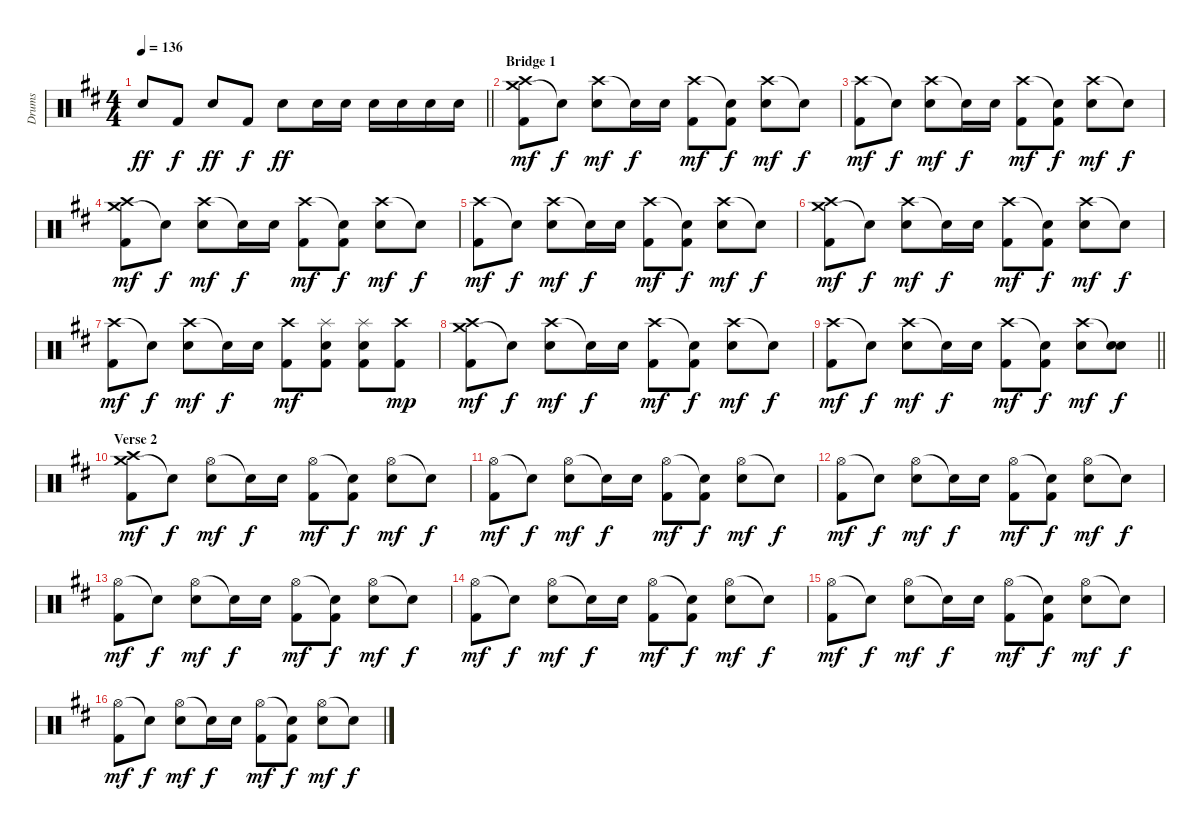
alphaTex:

\track ("Drums" "Drums") {instrument percussion}
\staff {score}
\articulation defaults
\ts (4 4)
\tempo 136
\clef neutral
\barLineRight lightlight
\ks d "Electric Snare (hit)".8{dy ff} "Kick (hit) 2".8{dy f} "Electric Snare (hit)".8{dy ff} "Kick (hit) 2".8{dy f} "Electric Snare (hit)".8{dy ff} "Electric Snare (hit)".16 "Electric Snare (hit)".16 "Electric Snare (hit)".16 "Electric Snare (hit)".16 "Electric Snare (hit)".16 "Electric Snare (hit)".16
|
\section ("" "Bridge 1")
("Crash medium (hit)" "Crash high (hit)" "Kick (hit) 2").8{dy mf} "Snare (hit)"{t}.8{dy f} ("Crash high (hit)" "Electric Snare (hit)").8{dy mf} "Snare (hit)"{t}.16{dy f} "Electric Snare (hit)".16 ("Crash high (hit)" "Kick (hit) 2").8{dy mf} ("Snare (hit)"{t} "Kick (hit) 2").8{dy f} ("Crash high (hit)" "Electric Snare (hit)").8{dy mf} "Snare (hit)"{t}.8{dy f} |
("Crash high (hit)" "Kick (hit) 2").8{dy mf} "Snare (hit)"{t}.8{dy f} ("Crash high (hit)" "Electric Snare (hit)").8{dy mf} "Snare (hit)"{t}.16{dy f} "Electric Snare (hit)".16 ("Crash high (hit)" "Kick (hit) 2").8{dy mf} ("Snare (hit)"{t} "Kick (hit) 2").8{dy f} ("Crash high (hit)" "Electric Snare (hit)").8{dy mf} "Snare (hit)"{t}.8{dy f} |
("Crash medium (hit)" "Crash high (hit)" "Kick (hit) 2").8{dy mf} "Snare (hit)"{t}.8{dy f} ("Crash high (hit)" "Electric Snare (hit)").8{dy mf} "Snare (hit)"{t}.16{dy f} "Electric Snare (hit)".16 ("Crash high (hit)" "Kick (hit) 2").8{dy mf} ("Snare (hit)"{t} "Kick (hit) 2").8{dy f} ("Crash high (hit)" "Electric Snare (hit)").8{dy mf} "Snare (hit)"{t}.8{dy f} |
("Crash high (hit)" "Kick (hit) 2").8{dy mf} "Snare (hit)"{t}.8{dy f} ("Crash high (hit)" "Electric Snare (hit)").8{dy mf} "Snare (hit)"{t}.16{dy f} "Electric Snare (hit)".16 ("Crash high (hit)" "Kick (hit) 2").8{dy mf} ("Snare (hit)"{t} "Kick (hit) 2").8{dy f} ("Crash high (hit)" "Electric Snare (hit)").8{dy mf} "Snare (hit)"{t}.8{dy f} |
("Crash medium (hit)" "Crash high (hit)" "Kick (hit) 2").8{dy mf} "Snare (hit)"{t}.8{dy f} ("Crash high (hit)" "Electric Snare (hit)").8{dy mf} "Snare (hit)"{t}.16{dy f} "Electric Snare (hit)".16 ("Crash high (hit)" "Kick (hit) 2").8{dy mf} ("Snare (hit)"{t} "Kick (hit) 2").8{dy f} ("Crash high (hit)" "Electric Snare (hit)").8{dy mf} "Snare (hit)"{t}.8{dy f} |
("Crash high (hit)" "Kick (hit) 2").8{dy mf} "Snare (hit)"{t}.8{dy f} ("Crash high (hit)" "Electric Snare (hit)").8{dy mf} "Snare (hit)"{t}.16{dy f} "Electric Snare (hit)".16 ("Crash high (hit)" "Kick (hit) 2").8{dy mf} ("Splash (hit)" "Electric Snare (hit)" "Kick (hit) 2").8 ("Splash (hit)" "Electric Snare (hit)" "Kick (hit) 2").8 ("Crash high (hit)" "Kick (hit) 2").8{dy mp} |
("Crash medium (hit)" "Crash high (hit)" "Kick (hit) 2").8{dy mf} "Snare (hit)"{t}.8{dy f} ("Crash high (hit)" "Electric Snare (hit)").8{dy mf} "Snare (hit)"{t}.16{dy f} "Electric Snare (hit)".16 ("Crash high (hit)" "Kick (hit) 2").8{dy mf} ("Snare (hit)"{t} "Kick (hit) 2").8{dy f} ("Crash high (hit)" "Electric Snare (hit)").8{dy mf} "Snare (hit)"{t}.8{dy f} |
\barLineRight lightlight
("Crash high (hit)" "Kick (hit) 2").8{dy mf} "Snare (hit)"{t}.8{dy f} ("Crash high (hit)" "Electric Snare (hit)").8{dy mf} "Snare (hit)"{t}.16{dy f} "Electric Snare (hit)".16 ("Crash high (hit)" "Kick (hit) 2").8{dy mf} ("Snare (hit)"{t} "Kick (hit) 2").8{dy f} ("Crash high (hit)" "Electric Snare (hit)").8{dy mf} ("Snare (hit)"{t} "Electric Snare (hit)").8{dy f} |
\section ("" "Verse 2")
("Crash medium (hit)" "Crash high (hit)" "Kick (hit) 2").8{dy mf} "Snare (hit)"{t}.8{dy f} ("Hi-Hat (open)" "Electric Snare (hit)").8{dy mf} "Snare (hit)"{t}.16{dy f} "Electric Snare (hit)".16 ("Hi-Hat (open)" "Kick (hit) 2").8{dy mf} ("Snare (hit)"{t} "Kick (hit) 2").8{dy f} ("Hi-Hat (open)" "Electric Snare (hit)").8{dy mf} "Snare (hit)"{t}.8{dy f} |
("Hi-Hat (open)" "Kick (hit) 2").8{dy mf} "Snare (hit)"{t}.8{dy f} ("Hi-Hat (open)" "Electric Snare (hit)").8{dy mf} "Snare (hit)"{t}.16{dy f} "Electric Snare (hit)".16 ("Hi-Hat (open)" "Kick (hit) 2").8{dy mf} ("Snare (hit)"{t} "Kick (hit) 2").8{dy f} ("Hi-Hat (open)" "Electric Snare (hit)").8{dy mf} "Snare (hit)"{t}.8{dy f} |
("Hi-Hat (open)" "Kick (hit) 2").8{dy mf} "Snare (hit)"{t}.8{dy f} ("Hi-Hat (open)" "Electric Snare (hit)").8{dy mf} "Snare (hit)"{t}.16{dy f} "Electric Snare (hit)".16 ("Hi-Hat (open)" "Kick (hit) 2").8{dy mf} ("Snare (hit)"{t} "Kick (hit) 2").8{dy f} ("Hi-Hat (open)" "Electric Snare (hit)").8{dy mf} "Snare (hit)"{t}.8{dy f} |
("Hi-Hat (open)" "Kick (hit) 2").8{dy mf} "Snare (hit)"{t}.8{dy f} ("Hi-Hat (open)" "Electric Snare (hit)").8{dy mf} "Snare (hit)"{t}.16{dy f} "Electric Snare (hit)".16 ("Hi-Hat (open)" "Kick (hit) 2").8{dy mf} ("Snare (hit)"{t} "Kick (hit) 2").8{dy f} ("Hi-Hat (open)" "Electric Snare (hit)").8{dy mf} "Snare (hit)"{t}.8{dy f} |
("Hi-Hat (open)" "Kick (hit) 2").8{dy mf} "Snare (hit)"{t}.8{dy f} ("Hi-Hat (open)" "Electric Snare (hit)").8{dy mf} "Snare (hit)"{t}.16{dy f} "Electric Snare (hit)".16 ("Hi-Hat (open)" "Kick (hit) 2").8{dy mf} ("Snare (hit)"{t} "Kick (hit) 2").8{dy f} ("Hi-Hat (open)" "Electric Snare (hit)").8{dy mf} "Snare (hit)"{t}.8{dy f} |
("Hi-Hat (open)" "Kick (hit) 2").8{dy mf} "Snare (hit)"{t}.8{dy f} ("Hi-Hat (open)" "Electric Snare (hit)").8{dy mf} "Snare (hit)"{t}.16{dy f} "Electric Snare (hit)".16 ("Hi-Hat (open)" "Kick (hit) 2").8{dy mf} ("Snare (hit)"{t} "Kick (hit) 2").8{dy f} ("Hi-Hat (open)" "Electric Snare (hit)").8{dy mf} "Snare (hit)"{t}.8{dy f} |
("Hi-Hat (open)" "Kick (hit) 2").8{dy mf} "Snare (hit)"{t}.8{dy f} ("Hi-Hat (open)" "Electric Snare (hit)").8{dy mf} "Snare (hit)"{t}.16{dy f} "Electric Snare (hit)".16 ("Hi-Hat (open)" "Kick (hit) 2").8{dy mf} ("Snare (hit)"{t} "Kick (hit) 2").8{dy f} ("Hi-Hat (open)" "Electric Snare (hit)").8{dy mf} "Snare (hit)"{t}.8{dy f}
